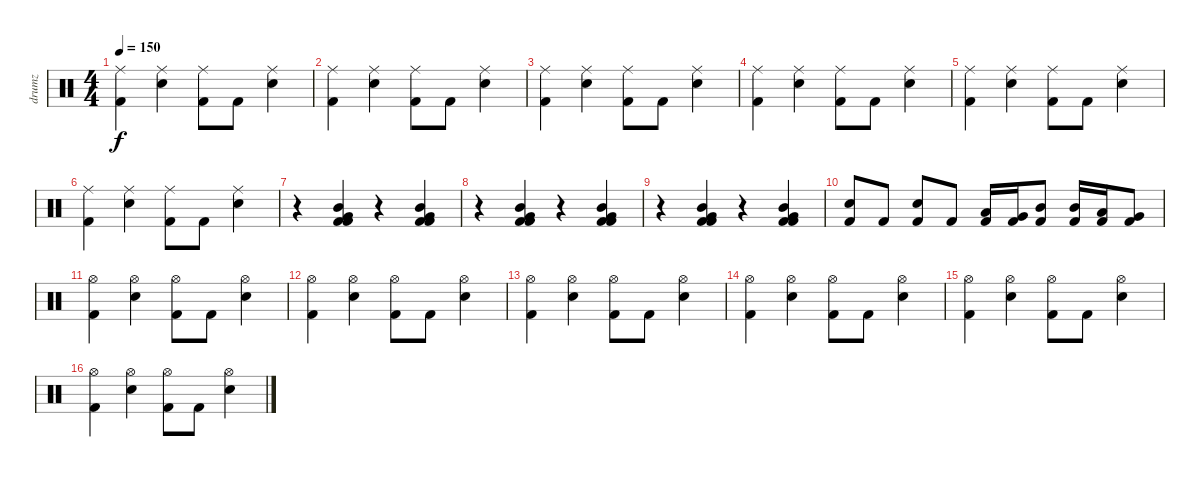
\track ("drumz" "drumz") {instrument percussion}
\staff {score}
\articulation defaults
\ts (4 4)
\tempo 150
\clef neutral
\ks c
("Ride (middle)" "Kick (hit) 2").4{dy f} ("Ride (middle)" "Electric Snare (hit)").4 ("Ride (middle)" "Kick (hit) 2").8 "Kick (hit) 2".8 ("Ride (middle)" "Electric Snare (hit)").4 |
("Ride (middle)" "Kick (hit) 2").4 ("Ride (middle)" "Electric Snare (hit)").4 ("Ride (middle)" "Kick (hit) 2").8 "Kick (hit) 2".8 ("Ride (middle)" "Electric Snare (hit)").4 |
("Ride (middle)" "Kick (hit) 2").4 ("Ride (middle)" "Electric Snare (hit)").4 ("Ride (middle)" "Kick (hit) 2").8 "Kick (hit) 2".8 ("Ride (middle)" "Electric Snare (hit)").4 |
("Ride (middle)" "Kick (hit) 2").4 ("Ride (middle)" "Electric Snare (hit)").4 ("Ride (middle)" "Kick (hit) 2").8 "Kick (hit) 2".8 ("Ride (middle)" "Electric Snare (hit)").4 |
("Ride (middle)" "Kick (hit) 2").4 ("Ride (middle)" "Electric Snare (hit)").4 ("Ride (middle)" "Kick (hit) 2").8 "Kick (hit) 2".8 ("Ride (middle)" "Electric Snare (hit)").4 |
("Ride (middle)" "Kick (hit) 2").4 ("Ride (middle)" "Electric Snare (hit)").4 ("Ride (middle)" "Kick (hit) 2").8 "Kick (hit) 2".8 ("Ride (middle)" "Electric Snare (hit)").4 |
r.4 ("Mid Tom (hit)" "Very Low Tom (hit)" "Kick (hit) 2" "Kick (hit) 2").4 r.4 ("Mid Tom (hit)" "Very Low Tom (hit)" "Kick (hit) 2" "Kick (hit) 2").4 |
r.4 ("Mid Tom (hit)" "Very Low Tom (hit)" "Kick (hit) 2" "Kick (hit) 2").4 r.4 ("Mid Tom (hit)" "Very Low Tom (hit)" "Kick (hit) 2" "Kick (hit) 2").4 |
r.4 ("Mid Tom (hit)" "Very Low Tom (hit)" "Kick (hit) 2" "Kick (hit) 2").4 r.4 ("Mid Tom (hit)" "Very Low Tom (hit)" "Kick (hit) 2" "Kick (hit) 2").4 |
("Electric Snare (hit)" "Kick (hit) 2").8 "Kick (hit) 2".8 ("Electric Snare (hit)" "Kick (hit) 2").8 "Kick (hit) 2".8 ("Low Tom (hit)" "Kick (hit) 2").16 ("Very Low Tom (hit)" "Kick (hit) 2").16 ("Mid Tom (hit)" "Kick (hit) 2").8 ("Mid Tom (hit)" "Kick (hit) 2").16 ("Low Tom (hit)" "Kick (hit) 2").16 ("Very Low Tom (hit)" "Kick (hit) 2").8 |
("Hi-Hat (open)" "Kick (hit) 2").4 ("Hi-Hat (open)" "Electric Snare (hit)").4 ("Hi-Hat (open)" "Kick (hit) 2").8 "Kick (hit) 2".8 ("Hi-Hat (open)" "Electric Snare (hit)").4 |
("Hi-Hat (open)" "Kick (hit) 2").4 ("Hi-Hat (open)" "Electric Snare (hit)").4 ("Hi-Hat (open)" "Kick (hit) 2").8 "Kick (hit) 2".8 ("Hi-Hat (open)" "Electric Snare (hit)").4 |
("Hi-Hat (open)" "Kick (hit) 2").4 ("Hi-Hat (open)" "Electric Snare (hit)").4 ("Hi-Hat (open)" "Kick (hit) 2").8 "Kick (hit) 2".8 ("Hi-Hat (open)" "Electric Snare (hit)").4 |
("Hi-Hat (open)" "Kick (hit) 2").4 ("Hi-Hat (open)" "Electric Snare (hit)").4 ("Hi-Hat (open)" "Kick (hit) 2").8 "Kick (hit) 2".8 ("Hi-Hat (open)" "Electric Snare (hit)").4 |
("Hi-Hat (open)" "Kick (hit) 2").4 ("Hi-Hat (open)" "Electric Snare (hit)").4 ("Hi-Hat (open)" "Kick (hit) 2").8 "Kick (hit) 2".8 ("Hi-Hat (open)" "Electric Snare (hit)").4 |
("Hi-Hat (open)" "Kick (hit) 2").4 ("Hi-Hat (open)" "Electric Snare (hit)").4 ("Hi-Hat (open)" "Kick (hit) 2").8 "Kick (hit) 2".8 ("Hi-Hat (open)" "Electric Snare (hit)").4
